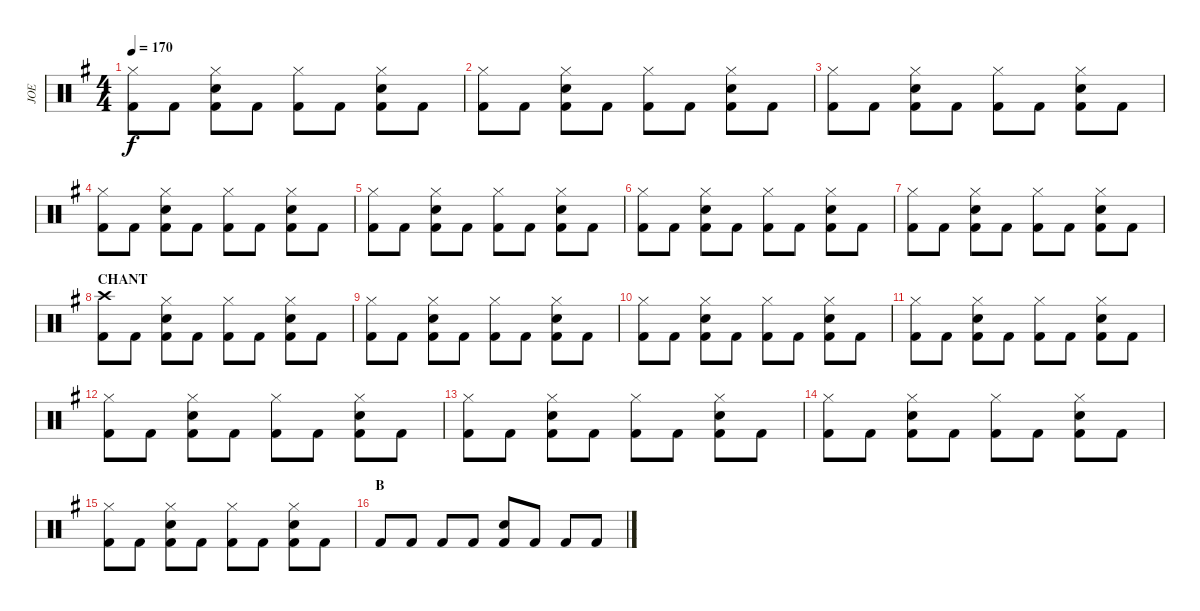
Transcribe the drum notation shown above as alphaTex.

\track ("JOE" "JOE") {instrument percussion}
\staff {score}
\articulation defaults
\ts (4 4)
\tempo 170
\clef neutral
\ks eminor
("Hi-Hat (closed)" "Kick (hit) 2").8{dy f} "Kick (hit) 2".8 ("Hi-Hat (closed)" "Kick (hit) 2" "Snare (hit) 2").8 "Kick (hit) 2".8 ("Hi-Hat (closed)" "Kick (hit) 2").8 "Kick (hit) 2".8 ("Hi-Hat (closed)" "Kick (hit) 2" "Snare (hit) 2").8 "Kick (hit) 2".8 |
("Hi-Hat (closed)" "Kick (hit) 2").8 "Kick (hit) 2".8 ("Hi-Hat (closed)" "Kick (hit) 2" "Snare (hit) 2").8 "Kick (hit) 2".8 ("Hi-Hat (closed)" "Kick (hit) 2").8 "Kick (hit) 2".8 ("Hi-Hat (closed)" "Kick (hit) 2" "Snare (hit) 2").8 "Kick (hit) 2".8 |
("Hi-Hat (closed)" "Kick (hit) 2").8 "Kick (hit) 2".8 ("Hi-Hat (closed)" "Kick (hit) 2" "Snare (hit) 2").8 "Kick (hit) 2".8 ("Hi-Hat (closed)" "Kick (hit) 2").8 "Kick (hit) 2".8 ("Hi-Hat (closed)" "Kick (hit) 2" "Snare (hit) 2").8 "Kick (hit) 2".8 |
("Hi-Hat (closed)" "Kick (hit) 2").8 "Kick (hit) 2".8 ("Hi-Hat (closed)" "Kick (hit) 2" "Snare (hit) 2").8 "Kick (hit) 2".8 ("Hi-Hat (closed)" "Kick (hit) 2").8 "Kick (hit) 2".8 ("Hi-Hat (closed)" "Kick (hit) 2" "Snare (hit) 2").8 "Kick (hit) 2".8 |
("Hi-Hat (closed)" "Kick (hit) 2").8 "Kick (hit) 2".8 ("Hi-Hat (closed)" "Kick (hit) 2" "Snare (hit) 2").8 "Kick (hit) 2".8 ("Hi-Hat (closed)" "Kick (hit) 2").8 "Kick (hit) 2".8 ("Hi-Hat (closed)" "Kick (hit) 2" "Snare (hit) 2").8 "Kick (hit) 2".8 |
("Hi-Hat (closed)" "Kick (hit) 2").8 "Kick (hit) 2".8 ("Hi-Hat (closed)" "Kick (hit) 2" "Snare (hit) 2").8 "Kick (hit) 2".8 ("Hi-Hat (closed)" "Kick (hit) 2").8 "Kick (hit) 2".8 ("Hi-Hat (closed)" "Kick (hit) 2" "Snare (hit) 2").8 "Kick (hit) 2".8 |
("Hi-Hat (closed)" "Kick (hit) 2").8 "Kick (hit) 2".8 ("Hi-Hat (closed)" "Kick (hit) 2" "Snare (hit) 2").8 "Kick (hit) 2".8 ("Hi-Hat (closed)" "Kick (hit) 2").8 "Kick (hit) 2".8 ("Hi-Hat (closed)" "Kick (hit) 2" "Snare (hit) 2").8 "Kick (hit) 2".8 |
\section ("" "CHANT")
("Crash high (hit)" "Kick (hit) 2").8 "Kick (hit) 2".8 ("Hi-Hat (closed)" "Kick (hit) 2" "Snare (hit) 2").8 "Kick (hit) 2".8 ("Hi-Hat (closed)" "Kick (hit) 2").8 "Kick (hit) 2".8 ("Hi-Hat (closed)" "Kick (hit) 2" "Snare (hit) 2").8 "Kick (hit) 2".8 |
("Hi-Hat (closed)" "Kick (hit) 2").8 "Kick (hit) 2".8 ("Hi-Hat (closed)" "Kick (hit) 2" "Snare (hit) 2").8 "Kick (hit) 2".8 ("Hi-Hat (closed)" "Kick (hit) 2").8 "Kick (hit) 2".8 ("Hi-Hat (closed)" "Kick (hit) 2" "Snare (hit) 2").8 "Kick (hit) 2".8 |
("Hi-Hat (closed)" "Kick (hit) 2").8 "Kick (hit) 2".8 ("Hi-Hat (closed)" "Kick (hit) 2" "Snare (hit) 2").8 "Kick (hit) 2".8 ("Hi-Hat (closed)" "Kick (hit) 2").8 "Kick (hit) 2".8 ("Hi-Hat (closed)" "Kick (hit) 2" "Snare (hit) 2").8 "Kick (hit) 2".8 |
("Hi-Hat (closed)" "Kick (hit) 2").8 "Kick (hit) 2".8 ("Hi-Hat (closed)" "Kick (hit) 2" "Snare (hit) 2").8 "Kick (hit) 2".8 ("Hi-Hat (closed)" "Kick (hit) 2").8 "Kick (hit) 2".8 ("Hi-Hat (closed)" "Kick (hit) 2" "Snare (hit) 2").8 "Kick (hit) 2".8 |
("Hi-Hat (closed)" "Kick (hit) 2").8 "Kick (hit) 2".8 ("Hi-Hat (closed)" "Kick (hit) 2" "Snare (hit) 2").8 "Kick (hit) 2".8 ("Hi-Hat (closed)" "Kick (hit) 2").8 "Kick (hit) 2".8 ("Hi-Hat (closed)" "Kick (hit) 2" "Snare (hit) 2").8 "Kick (hit) 2".8 |
("Hi-Hat (closed)" "Kick (hit) 2").8 "Kick (hit) 2".8 ("Hi-Hat (closed)" "Kick (hit) 2" "Snare (hit) 2").8 "Kick (hit) 2".8 ("Hi-Hat (closed)" "Kick (hit) 2").8 "Kick (hit) 2".8 ("Hi-Hat (closed)" "Kick (hit) 2" "Snare (hit) 2").8 "Kick (hit) 2".8 |
("Hi-Hat (closed)" "Kick (hit) 2").8 "Kick (hit) 2".8 ("Hi-Hat (closed)" "Kick (hit) 2" "Snare (hit) 2").8 "Kick (hit) 2".8 ("Hi-Hat (closed)" "Kick (hit) 2").8 "Kick (hit) 2".8 ("Hi-Hat (closed)" "Kick (hit) 2" "Snare (hit) 2").8 "Kick (hit) 2".8 |
("Hi-Hat (closed)" "Kick (hit) 2").8 "Kick (hit) 2".8 ("Hi-Hat (closed)" "Kick (hit) 2" "Snare (hit) 2").8 "Kick (hit) 2".8 ("Hi-Hat (closed)" "Kick (hit) 2").8 "Kick (hit) 2".8 ("Hi-Hat (closed)" "Kick (hit) 2" "Snare (hit) 2").8 "Kick (hit) 2".8 |
\section ("" "B")
"Kick (hit) 2".8 "Kick (hit) 2".8 "Kick (hit) 2".8 "Kick (hit) 2".8 ("Snare (hit) 2" "Kick (hit) 2").8 "Kick (hit) 2".8 "Kick (hit) 2".8 "Kick (hit) 2".8
